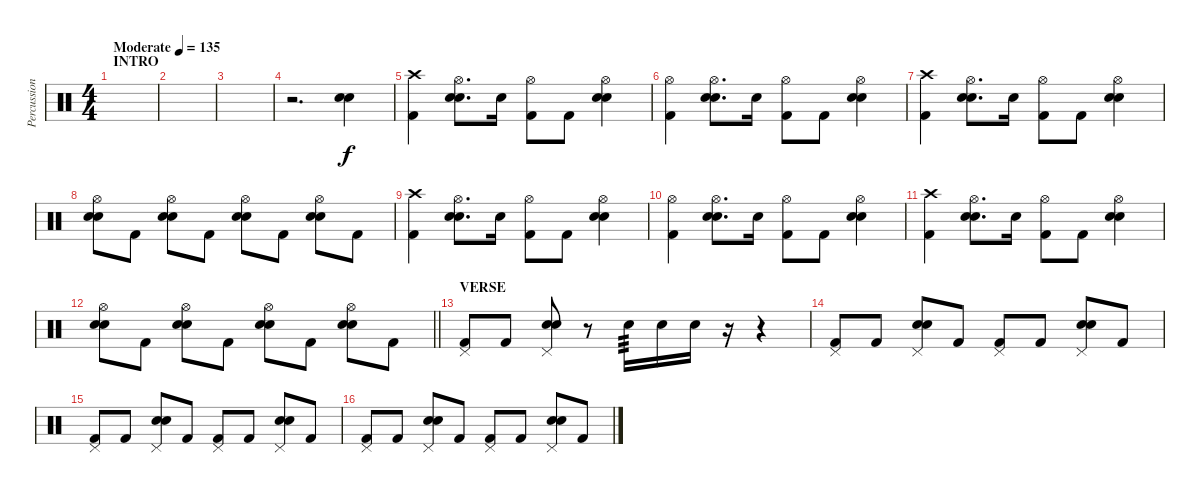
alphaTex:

\track ("Percussion" "Percussion") {instrument percussion}
\staff {score}
\articulation defaults
\ts (4 4)
\section ("" "INTRO")
\tempo (135 "Moderate")
\clef neutral
\ks c
|
|
|
r.2{d} ("Snare (hit) 2" "Electric Snare (hit)").4 |
("Crash high (hit)" "Kick (hit) 2").4 ("Hi-Hat (open)" "Snare (hit) 2" "Electric Snare (hit)").8{d} "Electric Snare (hit)".16 ("Hi-Hat (open)" "Kick (hit) 2").8 "Kick (hit) 2".8 ("Hi-Hat (open)" "Snare (hit) 2" "Electric Snare (hit)").4 |
("Hi-Hat (open)" "Kick (hit) 2").4 ("Hi-Hat (open)" "Snare (hit) 2" "Electric Snare (hit)").8{d} "Electric Snare (hit)".16 ("Hi-Hat (open)" "Kick (hit) 2").8 "Kick (hit) 2".8 ("Hi-Hat (open)" "Snare (hit) 2" "Electric Snare (hit)").4 |
("Crash high (hit)" "Kick (hit) 2").4 ("Hi-Hat (open)" "Snare (hit) 2" "Electric Snare (hit)").8{d} "Electric Snare (hit)".16 ("Hi-Hat (open)" "Kick (hit) 2").8 "Kick (hit) 2".8 ("Hi-Hat (open)" "Snare (hit) 2" "Electric Snare (hit)").4 |
("Hi-Hat (open)" "Snare (hit) 2" "Electric Snare (hit)").8 "Kick (hit) 2".8 ("Hi-Hat (open)" "Snare (hit) 2" "Electric Snare (hit)").8 "Kick (hit) 2".8 ("Hi-Hat (open)" "Snare (hit) 2" "Electric Snare (hit)").8 "Kick (hit) 2".8 ("Hi-Hat (open)" "Snare (hit) 2" "Electric Snare (hit)").8 "Kick (hit) 2".8 |
("Crash high (hit)" "Kick (hit) 2").4 ("Hi-Hat (open)" "Snare (hit) 2" "Electric Snare (hit)").8{d} "Electric Snare (hit)".16 ("Hi-Hat (open)" "Kick (hit) 2").8 "Kick (hit) 2".8 ("Hi-Hat (open)" "Snare (hit) 2" "Electric Snare (hit)").4 |
("Hi-Hat (open)" "Kick (hit) 2").4 ("Hi-Hat (open)" "Snare (hit) 2" "Electric Snare (hit)").8{d} "Electric Snare (hit)".16 ("Hi-Hat (open)" "Kick (hit) 2").8 "Kick (hit) 2".8 ("Hi-Hat (open)" "Snare (hit) 2" "Electric Snare (hit)").4 |
("Crash high (hit)" "Kick (hit) 2").4 ("Hi-Hat (open)" "Snare (hit) 2" "Electric Snare (hit)").8{d} "Electric Snare (hit)".16 ("Hi-Hat (open)" "Kick (hit) 2").8 "Kick (hit) 2".8 ("Hi-Hat (open)" "Snare (hit) 2" "Electric Snare (hit)").4 |
\barLineRight lightlight
("Hi-Hat (open)" "Snare (hit) 2" "Electric Snare (hit)").8 "Kick (hit) 2".8 ("Hi-Hat (open)" "Snare (hit) 2" "Electric Snare (hit)").8 "Kick (hit) 2".8 ("Hi-Hat (open)" "Snare (hit) 2" "Electric Snare (hit)").8 "Kick (hit) 2".8 ("Hi-Hat (open)" "Snare (hit) 2" "Electric Snare (hit)").8 "Kick (hit) 2".8 |
\section ("" "VERSE")
("Pedal Hi-Hat (hit)" "Kick (hit) 2").8 "Kick (hit) 2".8 ("Pedal Hi-Hat (hit)" "Snare (hit) 2" "Electric Snare (hit)").8 r.8 "Snare (hit) 2".16{tp 3} "Snare (hit) 2".16 "Snare (hit) 2".16 r.16 r.4 |
("Pedal Hi-Hat (hit)" "Kick (hit) 2").8 "Kick (hit) 2".8 ("Pedal Hi-Hat (hit)" "Snare (hit) 2" "Electric Snare (hit)").8 "Kick (hit) 2".8 ("Pedal Hi-Hat (hit)" "Kick (hit) 2").8 "Kick (hit) 2".8 ("Pedal Hi-Hat (hit)" "Snare (hit) 2" "Electric Snare (hit)").8 "Kick (hit) 2".8 |
("Pedal Hi-Hat (hit)" "Kick (hit) 2").8 "Kick (hit) 2".8 ("Pedal Hi-Hat (hit)" "Snare (hit) 2" "Electric Snare (hit)").8 "Kick (hit) 2".8 ("Pedal Hi-Hat (hit)" "Kick (hit) 2").8 "Kick (hit) 2".8 ("Pedal Hi-Hat (hit)" "Snare (hit) 2" "Electric Snare (hit)").8 "Kick (hit) 2".8 |
("Pedal Hi-Hat (hit)" "Kick (hit) 2").8 "Kick (hit) 2".8 ("Pedal Hi-Hat (hit)" "Snare (hit) 2" "Electric Snare (hit)").8 "Kick (hit) 2".8 ("Pedal Hi-Hat (hit)" "Kick (hit) 2").8 "Kick (hit) 2".8 ("Pedal Hi-Hat (hit)" "Snare (hit) 2" "Electric Snare (hit)").8 "Kick (hit) 2".8
